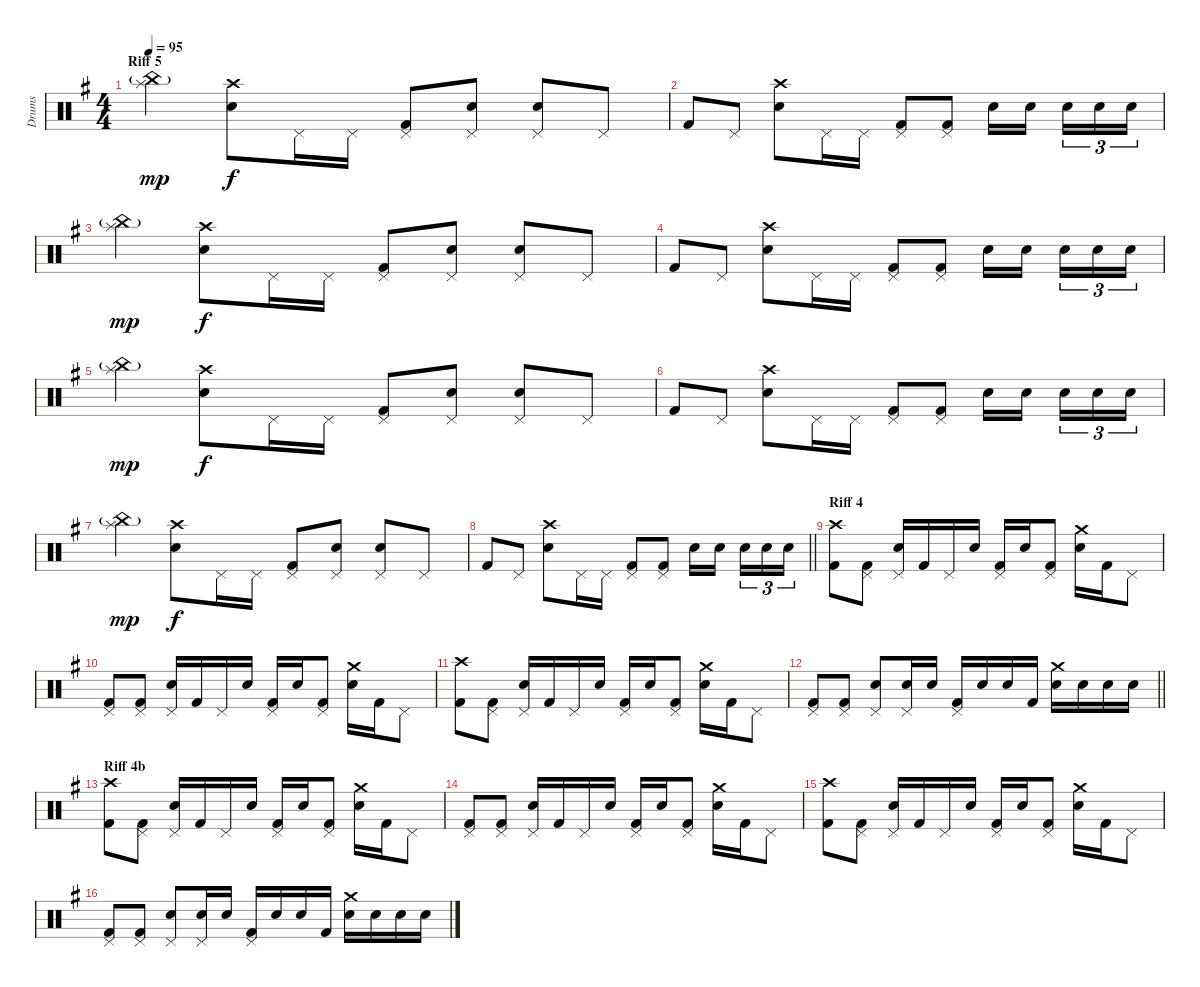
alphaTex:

\track ("Drums" "Drums") {instrument percussion}
\staff {score}
\articulation defaults
\ts (4 4)
\section ("" "Riff 5")
\tempo 95
\clef neutral
\ks eminor
("Splash (hit)" "China (hit)"{g}).4{dy mp} ("Crash high (hit)" "Electric Snare (hit)").8{dy f} "Pedal Hi-Hat (hit)".16 "Pedal Hi-Hat (hit)".16 ("Pedal Hi-Hat (hit)" "Kick (hit) 2").8 ("Pedal Hi-Hat (hit)" "Electric Snare (hit)").8 ("Pedal Hi-Hat (hit)" "Electric Snare (hit)").8 "Pedal Hi-Hat (hit)".8 |
"Kick (hit) 2".8 "Pedal Hi-Hat (hit)".8 ("Crash high (hit)" "Electric Snare (hit)").8 "Pedal Hi-Hat (hit)".16 "Pedal Hi-Hat (hit)".16 ("Pedal Hi-Hat (hit)" "Kick (hit) 2").8 ("Pedal Hi-Hat (hit)" "Kick (hit) 2").8 "Electric Snare (hit)".16 "Electric Snare (hit)".16{beam splitsecondary} "Electric Snare (hit)".16{tu (3 2)} "Electric Snare (hit)".16{tu (3 2)} "Electric Snare (hit)".16{tu (3 2)} |
("Splash (hit)" "China (hit)"{g}).4{dy mp} ("Crash high (hit)" "Electric Snare (hit)").8{dy f} "Pedal Hi-Hat (hit)".16 "Pedal Hi-Hat (hit)".16 ("Pedal Hi-Hat (hit)" "Kick (hit) 2").8 ("Pedal Hi-Hat (hit)" "Electric Snare (hit)").8 ("Pedal Hi-Hat (hit)" "Electric Snare (hit)").8 "Pedal Hi-Hat (hit)".8 |
"Kick (hit) 2".8 "Pedal Hi-Hat (hit)".8 ("Crash high (hit)" "Electric Snare (hit)").8 "Pedal Hi-Hat (hit)".16 "Pedal Hi-Hat (hit)".16 ("Pedal Hi-Hat (hit)" "Kick (hit) 2").8 ("Pedal Hi-Hat (hit)" "Kick (hit) 2").8 "Electric Snare (hit)".16 "Electric Snare (hit)".16{beam splitsecondary} "Electric Snare (hit)".16{tu (3 2)} "Electric Snare (hit)".16{tu (3 2)} "Electric Snare (hit)".16{tu (3 2)} |
("Splash (hit)" "China (hit)"{g}).4{dy mp} ("Crash high (hit)" "Electric Snare (hit)").8{dy f} "Pedal Hi-Hat (hit)".16 "Pedal Hi-Hat (hit)".16 ("Pedal Hi-Hat (hit)" "Kick (hit) 2").8 ("Pedal Hi-Hat (hit)" "Electric Snare (hit)").8 ("Pedal Hi-Hat (hit)" "Electric Snare (hit)").8 "Pedal Hi-Hat (hit)".8 |
"Kick (hit) 2".8 "Pedal Hi-Hat (hit)".8 ("Crash high (hit)" "Electric Snare (hit)").8 "Pedal Hi-Hat (hit)".16 "Pedal Hi-Hat (hit)".16 ("Pedal Hi-Hat (hit)" "Kick (hit) 2").8 ("Pedal Hi-Hat (hit)" "Kick (hit) 2").8 "Electric Snare (hit)".16 "Electric Snare (hit)".16{beam splitsecondary} "Electric Snare (hit)".16{tu (3 2)} "Electric Snare (hit)".16{tu (3 2)} "Electric Snare (hit)".16{tu (3 2)} |
("Splash (hit)" "China (hit)"{g}).4{dy mp} ("Crash high (hit)" "Electric Snare (hit)").8{dy f} "Pedal Hi-Hat (hit)".16 "Pedal Hi-Hat (hit)".16 ("Pedal Hi-Hat (hit)" "Kick (hit) 2").8 ("Pedal Hi-Hat (hit)" "Electric Snare (hit)").8 ("Pedal Hi-Hat (hit)" "Electric Snare (hit)").8 "Pedal Hi-Hat (hit)".8 |
\barLineRight lightlight "Kick (hit) 2".8 "Pedal Hi-Hat (hit)".8
("Crash high (hit)" "Electric Snare (hit)").8 "Pedal Hi-Hat (hit)".16 "Pedal Hi-Hat (hit)".16 ("Pedal Hi-Hat (hit)" "Kick (hit) 2").8 ("Pedal Hi-Hat (hit)" "Kick (hit) 2").8 "Electric Snare (hit)".16 "Electric Snare (hit)".16{beam splitsecondary} "Electric Snare (hit)".16{tu (3 2)} "Electric Snare (hit)".16{tu (3 2)} "Electric Snare (hit)".16{tu (3 2)} |
\section ("" "Riff 4")
("Crash high (hit)" "Kick (hit) 2").8 ("Pedal Hi-Hat (hit)" "Kick (hit) 2").8 ("Pedal Hi-Hat (hit)" "Electric Snare (hit)").16 "Kick (hit) 2".16 "Pedal Hi-Hat (hit)".16 "Electric Snare (hit)".16 ("Pedal Hi-Hat (hit)" "Kick (hit) 2").16 "Electric Snare (hit)".16 ("Pedal Hi-Hat (hit)" "Kick (hit) 2").8 ("Crash medium (hit)" "Electric Snare (hit)").16 "Kick (hit) 2".16 "Pedal Hi-Hat (hit)".8 |
("Pedal Hi-Hat (hit)" "Kick (hit) 2").8 ("Pedal Hi-Hat (hit)" "Kick (hit) 2").8 ("Pedal Hi-Hat (hit)" "Electric Snare (hit)").16 "Kick (hit) 2".16 "Pedal Hi-Hat (hit)".16 "Electric Snare (hit)".16 ("Pedal Hi-Hat (hit)" "Kick (hit) 2").16 "Electric Snare (hit)".16 ("Pedal Hi-Hat (hit)" "Kick (hit) 2").8 ("Crash medium (hit)" "Electric Snare (hit)").16 "Kick (hit) 2".16 "Pedal Hi-Hat (hit)".8 |
("Crash high (hit)" "Kick (hit) 2").8 ("Pedal Hi-Hat (hit)" "Kick (hit) 2").8 ("Pedal Hi-Hat (hit)" "Electric Snare (hit)").16 "Kick (hit) 2".16 "Pedal Hi-Hat (hit)".16 "Electric Snare (hit)".16 ("Pedal Hi-Hat (hit)" "Kick (hit) 2").16 "Electric Snare (hit)".16 ("Pedal Hi-Hat (hit)" "Kick (hit) 2").8 ("Crash medium (hit)" "Electric Snare (hit)").16 "Kick (hit) 2".16 "Pedal Hi-Hat (hit)".8 |
\barLineRight lightlight
("Pedal Hi-Hat (hit)" "Kick (hit) 2").8 ("Pedal Hi-Hat (hit)" "Kick (hit) 2").8 ("Pedal Hi-Hat (hit)" "Electric Snare (hit)").8 ("Pedal Hi-Hat (hit)" "Electric Snare (hit)").16 "Electric Snare (hit)".16 ("Pedal Hi-Hat (hit)" "Kick (hit) 2").16 "Electric Snare (hit)".16 "Electric Snare (hit)".16 "Kick (hit) 2".16 ("Crash medium (hit)" "Electric Snare (hit)").16 "Electric Snare (hit)".16 "Electric Snare (hit)".16 "Electric Snare (hit)".16 |
\section ("" "Riff 4b")
("Crash high (hit)" "Kick (hit) 2").8 ("Pedal Hi-Hat (hit)" "Kick (hit) 2").8 ("Pedal Hi-Hat (hit)" "Electric Snare (hit)").16 "Kick (hit) 2".16 "Pedal Hi-Hat (hit)".16 "Electric Snare (hit)".16 ("Pedal Hi-Hat (hit)" "Kick (hit) 2").16 "Electric Snare (hit)".16 ("Pedal Hi-Hat (hit)" "Kick (hit) 2").8 ("Crash medium (hit)" "Electric Snare (hit)").16 "Kick (hit) 2".16 "Pedal Hi-Hat (hit)".8 |
("Pedal Hi-Hat (hit)" "Kick (hit) 2").8 ("Pedal Hi-Hat (hit)" "Kick (hit) 2").8 ("Pedal Hi-Hat (hit)" "Electric Snare (hit)").16 "Kick (hit) 2".16 "Pedal Hi-Hat (hit)".16 "Electric Snare (hit)".16 ("Pedal Hi-Hat (hit)" "Kick (hit) 2").16 "Electric Snare (hit)".16 ("Pedal Hi-Hat (hit)" "Kick (hit) 2").8 ("Crash medium (hit)" "Electric Snare (hit)").16 "Kick (hit) 2".16 "Pedal Hi-Hat (hit)".8 |
("Crash high (hit)" "Kick (hit) 2").8 ("Pedal Hi-Hat (hit)" "Kick (hit) 2").8 ("Pedal Hi-Hat (hit)" "Electric Snare (hit)").16 "Kick (hit) 2".16 "Pedal Hi-Hat (hit)".16 "Electric Snare (hit)".16 ("Pedal Hi-Hat (hit)" "Kick (hit) 2").16 "Electric Snare (hit)".16 ("Pedal Hi-Hat (hit)" "Kick (hit) 2").8 ("Crash medium (hit)" "Electric Snare (hit)").16 "Kick (hit) 2".16 "Pedal Hi-Hat (hit)".8 |
("Pedal Hi-Hat (hit)" "Kick (hit) 2").8 ("Pedal Hi-Hat (hit)" "Kick (hit) 2").8 ("Pedal Hi-Hat (hit)" "Electric Snare (hit)").8 ("Pedal Hi-Hat (hit)" "Electric Snare (hit)").16 "Electric Snare (hit)".16 ("Pedal Hi-Hat (hit)" "Kick (hit) 2").16 "Electric Snare (hit)".16 "Electric Snare (hit)".16 "Kick (hit) 2".16 ("Crash medium (hit)" "Electric Snare (hit)").16 "Electric Snare (hit)".16 "Electric Snare (hit)".16 "Electric Snare (hit)".16
